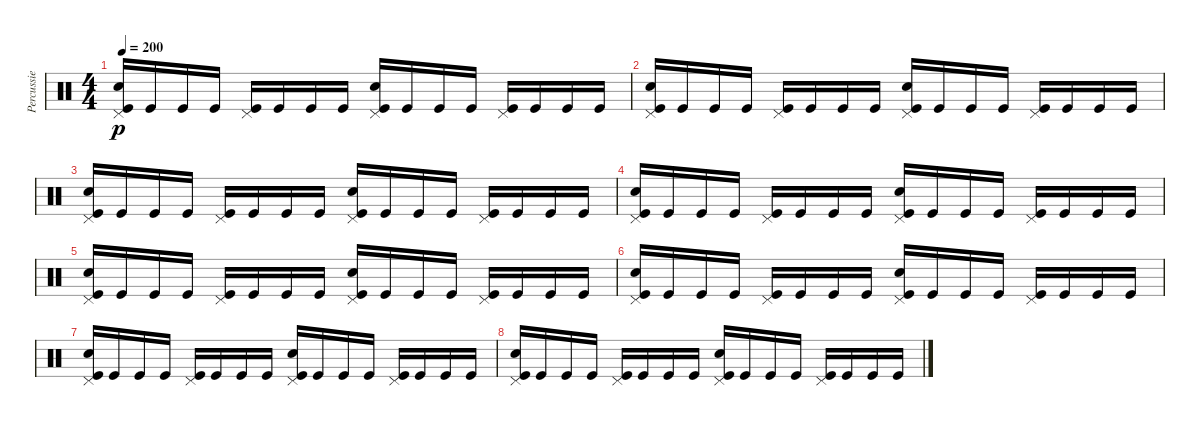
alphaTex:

\track ("Percussie" "Percussie") {instrument percussion}
\staff {score}
\articulation defaults
\ts (4 4)
\tempo 200
\clef neutral
\ks c
("Snare (hit) 2" "Pedal Hi-Hat (hit)" "Kick (hit)").16{dy p} "Kick (hit)".16 "Kick (hit)".16 "Kick (hit)".16 ("Pedal Hi-Hat (hit)" "Kick (hit)").16 "Kick (hit)".16 "Kick (hit)".16 "Kick (hit)".16 ("Electric Snare (hit)" "Pedal Hi-Hat (hit)" "Kick (hit)").16 "Kick (hit)".16 "Kick (hit)".16 "Kick (hit)".16 ("Pedal Hi-Hat (hit)" "Kick (hit)").16 "Kick (hit)".16 "Kick (hit)".16 "Kick (hit)".16 |
("Snare (hit) 2" "Pedal Hi-Hat (hit)" "Kick (hit)").16 "Kick (hit)".16 "Kick (hit)".16 "Kick (hit)".16 ("Pedal Hi-Hat (hit)" "Kick (hit)").16 "Kick (hit)".16 "Kick (hit)".16 "Kick (hit)".16 ("Electric Snare (hit)" "Pedal Hi-Hat (hit)" "Kick (hit)").16 "Kick (hit)".16 "Kick (hit)".16 "Kick (hit)".16 ("Pedal Hi-Hat (hit)" "Kick (hit)").16 "Kick (hit)".16 "Kick (hit)".16 "Kick (hit)".16 |
("Snare (hit) 2" "Pedal Hi-Hat (hit)" "Kick (hit)").16 "Kick (hit)".16 "Kick (hit)".16 "Kick (hit)".16 ("Pedal Hi-Hat (hit)" "Kick (hit)").16 "Kick (hit)".16 "Kick (hit)".16 "Kick (hit)".16 ("Electric Snare (hit)" "Pedal Hi-Hat (hit)" "Kick (hit)").16 "Kick (hit)".16 "Kick (hit)".16 "Kick (hit)".16 ("Pedal Hi-Hat (hit)" "Kick (hit)").16 "Kick (hit)".16 "Kick (hit)".16 "Kick (hit)".16 |
("Snare (hit) 2" "Pedal Hi-Hat (hit)" "Kick (hit)").16 "Kick (hit)".16 "Kick (hit)".16 "Kick (hit)".16 ("Pedal Hi-Hat (hit)" "Kick (hit)").16 "Kick (hit)".16 "Kick (hit)".16 "Kick (hit)".16 ("Electric Snare (hit)" "Pedal Hi-Hat (hit)" "Kick (hit)").16 "Kick (hit)".16 "Kick (hit)".16 "Kick (hit)".16 ("Pedal Hi-Hat (hit)" "Kick (hit)").16 "Kick (hit)".16 "Kick (hit)".16 "Kick (hit)".16 |
("Snare (hit) 2" "Pedal Hi-Hat (hit)" "Kick (hit)").16 "Kick (hit)".16 "Kick (hit)".16 "Kick (hit)".16 ("Pedal Hi-Hat (hit)" "Kick (hit)").16 "Kick (hit)".16 "Kick (hit)".16 "Kick (hit)".16 ("Electric Snare (hit)" "Pedal Hi-Hat (hit)" "Kick (hit)").16 "Kick (hit)".16 "Kick (hit)".16 "Kick (hit)".16 ("Pedal Hi-Hat (hit)" "Kick (hit)").16 "Kick (hit)".16 "Kick (hit)".16 "Kick (hit)".16 |
("Snare (hit) 2" "Pedal Hi-Hat (hit)" "Kick (hit)").16 "Kick (hit)".16 "Kick (hit)".16 "Kick (hit)".16 ("Pedal Hi-Hat (hit)" "Kick (hit)").16 "Kick (hit)".16 "Kick (hit)".16 "Kick (hit)".16 ("Electric Snare (hit)" "Pedal Hi-Hat (hit)" "Kick (hit)").16 "Kick (hit)".16 "Kick (hit)".16 "Kick (hit)".16 ("Pedal Hi-Hat (hit)" "Kick (hit)").16 "Kick (hit)".16 "Kick (hit)".16 "Kick (hit)".16 |
("Snare (hit) 2" "Pedal Hi-Hat (hit)" "Kick (hit)").16 "Kick (hit)".16 "Kick (hit)".16 "Kick (hit)".16 ("Pedal Hi-Hat (hit)" "Kick (hit)").16 "Kick (hit)".16 "Kick (hit)".16 "Kick (hit)".16 ("Electric Snare (hit)" "Pedal Hi-Hat (hit)" "Kick (hit)").16 "Kick (hit)".16 "Kick (hit)".16 "Kick (hit)".16 ("Pedal Hi-Hat (hit)" "Kick (hit)").16 "Kick (hit)".16 "Kick (hit)".16 "Kick (hit)".16 |
("Snare (hit) 2" "Pedal Hi-Hat (hit)" "Kick (hit)").16 "Kick (hit)".16 "Kick (hit)".16 "Kick (hit)".16 ("Pedal Hi-Hat (hit)" "Kick (hit)").16 "Kick (hit)".16 "Kick (hit)".16 "Kick (hit)".16 ("Electric Snare (hit)" "Pedal Hi-Hat (hit)" "Kick (hit)").16 "Kick (hit)".16 "Kick (hit)".16 "Kick (hit)".16 ("Pedal Hi-Hat (hit)" "Kick (hit)").16 "Kick (hit)".16 "Kick (hit)".16 "Kick (hit)".16
